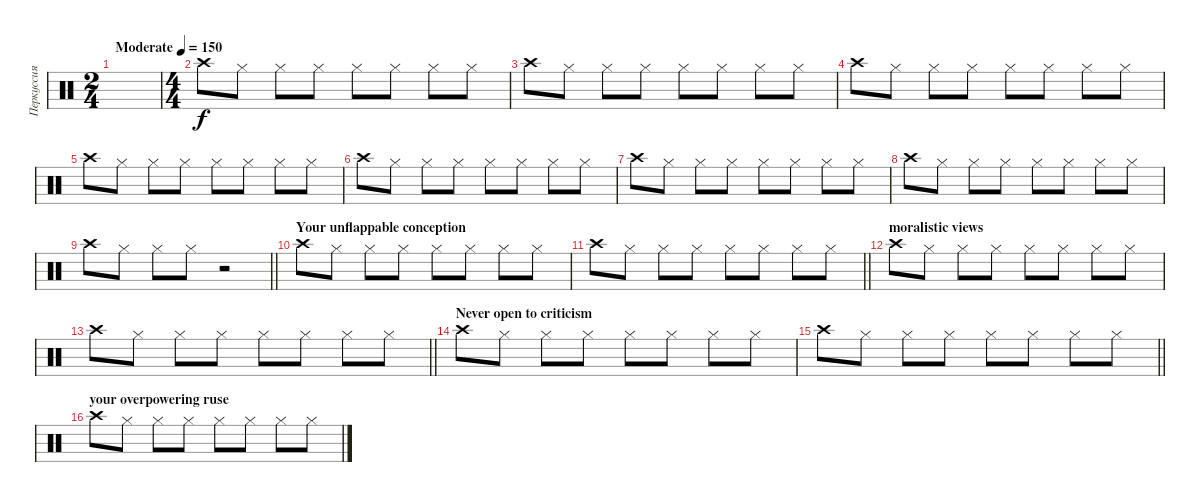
\track ("Перкуссия" "Перкуссия") {instrument percussion}
\staff {score}
\articulation defaults
\ts (2 4)
\tempo (150 "Moderate")
\clef neutral
\ks c
|
\ts (4 4)
"Crash high (hit)".8{beam Down} "Hi-Hat (closed)".8{beam Down} "Hi-Hat (closed)".8{beam Down} "Hi-Hat (closed)".8{beam Down} "Hi-Hat (closed)".8{beam Down} "Hi-Hat (closed)".8{beam Down} "Hi-Hat (closed)".8{beam Down} "Hi-Hat (closed)".8{beam Down} |
"Crash high (hit)".8{beam Down} "Hi-Hat (closed)".8{beam Down} "Hi-Hat (closed)".8{beam Down} "Hi-Hat (closed)".8{beam Down} "Hi-Hat (closed)".8{beam Down} "Hi-Hat (closed)".8{beam Down} "Hi-Hat (closed)".8{beam Down} "Hi-Hat (closed)".8{beam Down} |
"Crash high (hit)".8{beam Down} "Hi-Hat (closed)".8{beam Down} "Hi-Hat (closed)".8{beam Down} "Hi-Hat (closed)".8{beam Down} "Hi-Hat (closed)".8{beam Down} "Hi-Hat (closed)".8{beam Down} "Hi-Hat (closed)".8{beam Down} "Hi-Hat (closed)".8{beam Down} |
"Crash high (hit)".8{beam Down} "Hi-Hat (closed)".8{beam Down} "Hi-Hat (closed)".8{beam Down} "Hi-Hat (closed)".8{beam Down} "Hi-Hat (closed)".8{beam Down} "Hi-Hat (closed)".8{beam Down} "Hi-Hat (closed)".8{beam Down} "Hi-Hat (closed)".8{beam Down} |
"Crash high (hit)".8{beam Down} "Hi-Hat (closed)".8{beam Down} "Hi-Hat (closed)".8{beam Down} "Hi-Hat (closed)".8{beam Down} "Hi-Hat (closed)".8{beam Down} "Hi-Hat (closed)".8{beam Down} "Hi-Hat (closed)".8{beam Down} "Hi-Hat (closed)".8{beam Down} |
"Crash high (hit)".8{beam Down} "Hi-Hat (closed)".8{beam Down} "Hi-Hat (closed)".8{beam Down} "Hi-Hat (closed)".8{beam Down} "Hi-Hat (closed)".8{beam Down} "Hi-Hat (closed)".8{beam Down} "Hi-Hat (closed)".8{beam Down} "Hi-Hat (closed)".8{beam Down} |
"Crash high (hit)".8{beam Down} "Hi-Hat (closed)".8{beam Down} "Hi-Hat (closed)".8{beam Down} "Hi-Hat (closed)".8{beam Down} "Hi-Hat (closed)".8{beam Down} "Hi-Hat (closed)".8{beam Down} "Hi-Hat (closed)".8{beam Down} "Hi-Hat (closed)".8{beam Down} |
\barLineRight lightlight "Crash high (hit)".8{beam Down} "Hi-Hat (closed)".8{beam Down} "Hi-Hat (closed)".8{beam Down} "Hi-Hat (closed)".8{beam Down}
r.2{beam Up} |
\section ("" "Your unflappable conception")
"Crash high (hit)".8{beam Down} "Hi-Hat (closed)".8{beam Down} "Hi-Hat (closed)".8{beam Down} "Hi-Hat (closed)".8{beam Down} "Hi-Hat (closed)".8{beam Down} "Hi-Hat (closed)".8{beam Down} "Hi-Hat (closed)".8{beam Down} "Hi-Hat (closed)".8{beam Down} |
\barLineRight lightlight "Crash high (hit)".8{beam Down} "Hi-Hat (closed)".8{beam Down} "Hi-Hat (closed)".8{beam Down} "Hi-Hat (closed)".8{beam Down} "Hi-Hat (closed)".8{beam Down} "Hi-Hat (closed)".8{beam Down} "Hi-Hat (closed)".8{beam Down} "Hi-Hat (closed)".8{beam Down}
|
\section ("" "moralistic views")
"Crash high (hit)".8{beam Down} "Hi-Hat (closed)".8{beam Down} "Hi-Hat (closed)".8{beam Down} "Hi-Hat (closed)".8{beam Down} "Hi-Hat (closed)".8{beam Down} "Hi-Hat (closed)".8{beam Down} "Hi-Hat (closed)".8{beam Down} "Hi-Hat (closed)".8{beam Down} |
\barLineRight lightlight "Crash high (hit)".8{beam Down} "Hi-Hat (closed)".8{beam Down} "Hi-Hat (closed)".8{beam Down} "Hi-Hat (closed)".8{beam Down} "Hi-Hat (closed)".8{beam Down} "Hi-Hat (closed)".8{beam Down} "Hi-Hat (closed)".8{beam Down} "Hi-Hat (closed)".8{beam Down}
|
\section ("" "Never open to criticism")
"Crash high (hit)".8{beam Down} "Hi-Hat (closed)".8{beam Down} "Hi-Hat (closed)".8{beam Down} "Hi-Hat (closed)".8{beam Down} "Hi-Hat (closed)".8{beam Down} "Hi-Hat (closed)".8{beam Down} "Hi-Hat (closed)".8{beam Down} "Hi-Hat (closed)".8{beam Down} |
\barLineRight lightlight "Crash high (hit)".8{beam Down} "Hi-Hat (closed)".8{beam Down} "Hi-Hat (closed)".8{beam Down} "Hi-Hat (closed)".8{beam Down} "Hi-Hat (closed)".8{beam Down} "Hi-Hat (closed)".8{beam Down} "Hi-Hat (closed)".8{beam Down} "Hi-Hat (closed)".8{beam Down}
|
\section ("" "your overpowering ruse")
"Crash high (hit)".8{beam Down} "Hi-Hat (closed)".8{beam Down} "Hi-Hat (closed)".8{beam Down} "Hi-Hat (closed)".8{beam Down} "Hi-Hat (closed)".8{beam Down} "Hi-Hat (closed)".8{beam Down} "Hi-Hat (closed)".8{beam Down} "Hi-Hat (closed)".8{beam Down}
